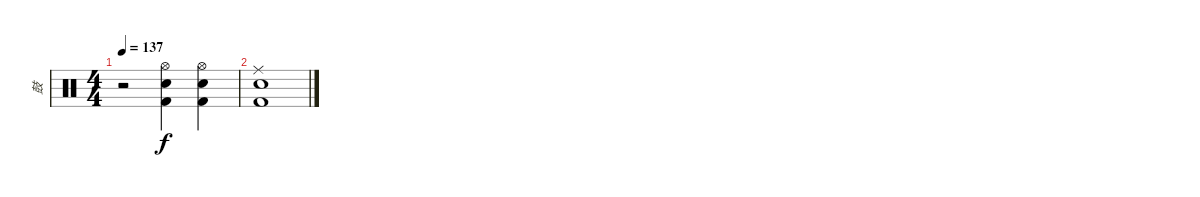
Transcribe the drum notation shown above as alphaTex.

\track ("鼓" "鼓") {instrument percussion}
\staff {score}
\articulation defaults
\ts (4 4)
\tempo 137
\clef neutral
\ks c
r.2{dy f} ("Hi-Hat (open)" "Snare (hit) 2" "Kick (hit) 2").4 ("Hi-Hat (open)" "Snare (hit) 2" "Kick (hit) 2").4 |
("Ride (middle)" "Snare (hit) 2" "Kick (hit) 2").1
